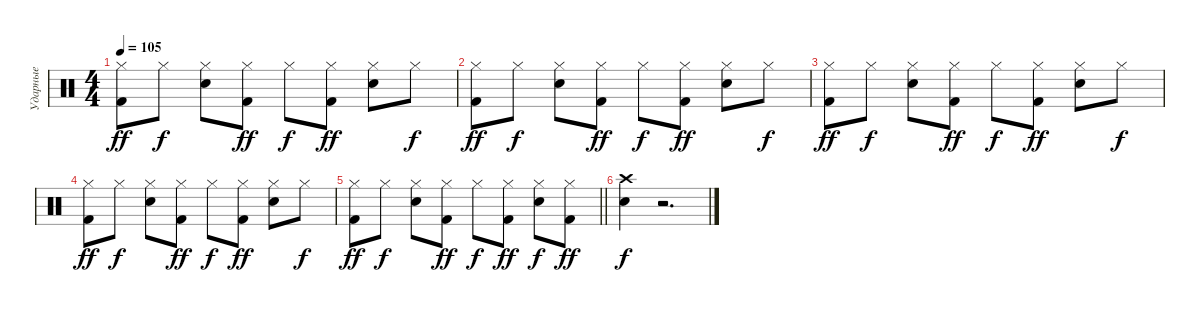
\track ("Ударные" "Ударные") {solo instrument percussion}
\staff {score}
\articulation defaults
\ts (4 4)
\tempo 105
\clef neutral
\ks c
("Kick (hit) 2" "Hi-Hat (closed)").8{dy ff} "Hi-Hat (closed)".8{dy f} ("Snare (hit) 2" "Hi-Hat (closed)").8 ("Kick (hit) 2" "Hi-Hat (closed)").8{dy ff} "Hi-Hat (closed)".8{dy f} ("Kick (hit) 2" "Hi-Hat (closed)").8{dy ff} ("Snare (hit) 2" "Hi-Hat (closed)").8 "Hi-Hat (closed)".8{dy f} |
("Kick (hit) 2" "Hi-Hat (closed)").8{dy ff} "Hi-Hat (closed)".8{dy f} ("Snare (hit) 2" "Hi-Hat (closed)").8 ("Kick (hit) 2" "Hi-Hat (closed)").8{dy ff} "Hi-Hat (closed)".8{dy f} ("Kick (hit) 2" "Hi-Hat (closed)").8{dy ff} ("Snare (hit) 2" "Hi-Hat (closed)").8 "Hi-Hat (closed)".8{dy f} |
("Kick (hit) 2" "Hi-Hat (closed)").8{dy ff} "Hi-Hat (closed)".8{dy f} ("Snare (hit) 2" "Hi-Hat (closed)").8 ("Kick (hit) 2" "Hi-Hat (closed)").8{dy ff} "Hi-Hat (closed)".8{dy f} ("Kick (hit) 2" "Hi-Hat (closed)").8{dy ff} ("Snare (hit) 2" "Hi-Hat (closed)").8 "Hi-Hat (closed)".8{dy f} |
("Kick (hit) 2" "Hi-Hat (closed)").8{dy ff} "Hi-Hat (closed)".8{dy f} ("Snare (hit) 2" "Hi-Hat (closed)").8 ("Kick (hit) 2" "Hi-Hat (closed)").8{dy ff} "Hi-Hat (closed)".8{dy f} ("Kick (hit) 2" "Hi-Hat (closed)").8{dy ff} ("Snare (hit) 2" "Hi-Hat (closed)").8 "Hi-Hat (closed)".8{dy f} |
\barLineRight lightlight
("Kick (hit) 2" "Hi-Hat (closed)").8{dy ff} "Hi-Hat (closed)".8{dy f} ("Snare (hit) 2" "Hi-Hat (closed)").8 ("Kick (hit) 2" "Hi-Hat (closed)").8{dy ff} "Hi-Hat (closed)".8{dy f} ("Kick (hit) 2" "Hi-Hat (closed)").8{dy ff} ("Snare (hit) 2" "Hi-Hat (closed)").8{dy f} ("Kick (hit) 2" "Hi-Hat (closed)").8{dy ff} |
("Snare (hit) 2" "Crash high (hit)").4{dy f} r.2{d}
